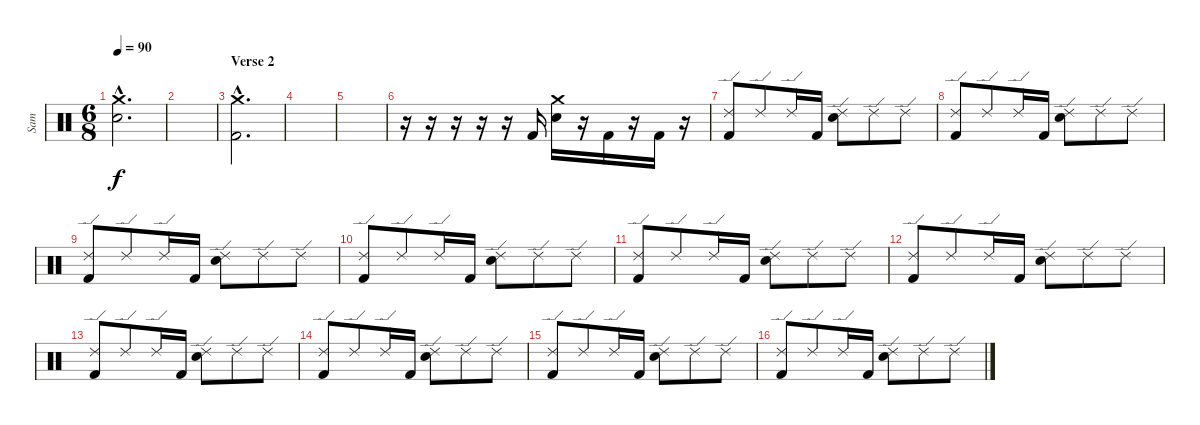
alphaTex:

\track ("Sam" "Sam") {instrument percussion}
\staff {score}
\articulation defaults
\ts (6 8)
\tempo 90
\clef neutral
\ks c
("Crash medium (hit)"{hac} "Snare (hit) 2"{hac}).2{d dy f} |
|
\section ("" "Verse 2")
("Crash medium (hit)"{hac} "Kick (hit) 2"{hac}).2{d} |
|
|
r.16 r.16 r.16 r.16 r.16 "Kick (hit) 2".16 ("Crash medium (hit)" "Snare (hit) 2").16 r.16 "Kick (hit) 2".16 r.16 "Kick (hit) 2".16 r.16 |
("Ride (edge) 2" "Kick (hit) 2").8 "Ride (edge) 2".8 "Ride (edge) 2".16 "Kick (hit) 2".16 ("Ride (edge) 2" "Snare (hit) 2").8 "Ride (edge) 2".8 "Ride (edge) 2".8 |
("Ride (edge) 2" "Kick (hit) 2").8 "Ride (edge) 2".8 "Ride (edge) 2".16 "Kick (hit) 2".16 ("Ride (edge) 2" "Snare (hit) 2").8 "Ride (edge) 2".8 "Ride (edge) 2".8 |
("Ride (edge) 2" "Kick (hit) 2").8 "Ride (edge) 2".8 "Ride (edge) 2".16 "Kick (hit) 2".16 ("Ride (edge) 2" "Snare (hit) 2").8 "Ride (edge) 2".8 "Ride (edge) 2".8 |
("Ride (edge) 2" "Kick (hit) 2").8 "Ride (edge) 2".8 "Ride (edge) 2".16 "Kick (hit) 2".16 ("Ride (edge) 2" "Snare (hit) 2").8 "Ride (edge) 2".8 "Ride (edge) 2".8 |
("Ride (edge) 2" "Kick (hit) 2").8 "Ride (edge) 2".8 "Ride (edge) 2".16 "Kick (hit) 2".16 ("Ride (edge) 2" "Snare (hit) 2").8 "Ride (edge) 2".8 "Ride (edge) 2".8 |
("Ride (edge) 2" "Kick (hit) 2").8 "Ride (edge) 2".8 "Ride (edge) 2".16 "Kick (hit) 2".16 ("Ride (edge) 2" "Snare (hit) 2").8 "Ride (edge) 2".8 "Ride (edge) 2".8 |
("Ride (edge) 2" "Kick (hit) 2").8 "Ride (edge) 2".8 "Ride (edge) 2".16 "Kick (hit) 2".16 ("Ride (edge) 2" "Snare (hit) 2").8 "Ride (edge) 2".8 "Ride (edge) 2".8 |
("Ride (edge) 2" "Kick (hit) 2").8 "Ride (edge) 2".8 "Ride (edge) 2".16 "Kick (hit) 2".16 ("Ride (edge) 2" "Snare (hit) 2").8 "Ride (edge) 2".8 "Ride (edge) 2".8 |
("Ride (edge) 2" "Kick (hit) 2").8 "Ride (edge) 2".8 "Ride (edge) 2".16 "Kick (hit) 2".16 ("Ride (edge) 2" "Snare (hit) 2").8 "Ride (edge) 2".8 "Ride (edge) 2".8 |
("Ride (edge) 2" "Kick (hit) 2").8 "Ride (edge) 2".8 "Ride (edge) 2".16 "Kick (hit) 2".16 ("Ride (edge) 2" "Snare (hit) 2").8 "Ride (edge) 2".8 "Ride (edge) 2".8
